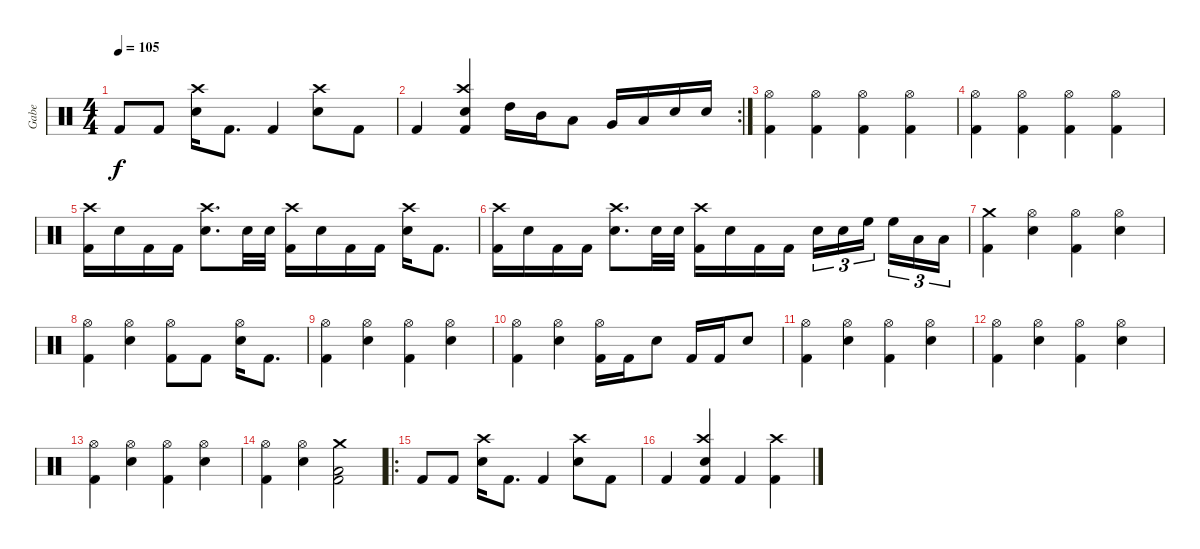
\track ("Gabe" "Gabe") {instrument percussion}
\staff {score}
\articulation defaults
\ts (4 4)
\tempo 105
\clef neutral
\ks c "Kick (hit) 2".8{dy f} "Kick (hit) 2".8
("Crash high (hit)" "Electric Snare (hit)").16 "Kick (hit) 2".8{d} "Kick (hit) 2".4 ("Crash high (hit)" "Electric Snare (hit)").8 "Kick (hit) 2".8 |
\rc 2 "Kick (hit) 2".4
("Crash high (hit)" "Electric Snare (hit)" "Kick (hit) 2").4 "High Tom (hit)".16 "Mid Tom (hit)".16 "Low Tom (hit)".8 "Very Low Tom (hit)".16 "Low Floor Tom (hit)".16 "Electric Snare (hit)".16 "Electric Snare (hit)".16 |
("Hi-Hat (open)" "Kick (hit) 2").4 ("Hi-Hat (open)" "Kick (hit) 2").4 ("Hi-Hat (open)" "Kick (hit) 2").4 ("Hi-Hat (open)" "Kick (hit) 2").4 |
("Hi-Hat (open)" "Kick (hit) 2").4 ("Hi-Hat (open)" "Kick (hit) 2").4 ("Hi-Hat (open)" "Kick (hit) 2").4 ("Hi-Hat (open)" "Kick (hit) 2").4 |
("Crash high (hit)" "Kick (hit) 2").16 "Electric Snare (hit)".16 "Kick (hit) 2".16 "Kick (hit) 2".16 ("Crash high (hit)" "Electric Snare (hit)").8{d} "Electric Snare (hit)".32 "Electric Snare (hit)".32 ("Crash high (hit)" "Kick (hit) 2").16 "Electric Snare (hit)".16 "Kick (hit) 2".16 "Kick (hit) 2".16 ("Crash high (hit)" "Electric Snare (hit)").16 "Kick (hit) 2".8{d} |
("Crash high (hit)" "Kick (hit) 2").16 "Electric Snare (hit)".16 "Kick (hit) 2".16 "Kick (hit) 2".16 ("Crash high (hit)" "Electric Snare (hit)").8{d} "Electric Snare (hit)".32 "Electric Snare (hit)".32 ("Crash high (hit)" "Kick (hit) 2").16 "Electric Snare (hit)".16 "Kick (hit) 2".16 "Kick (hit) 2".16 "Electric Snare (hit)".16{tu (3 2)} "Electric Snare (hit)".16{tu (3 2)} "High Floor Tom (hit)".16{tu (3 2) beam splitsecondary} "High Floor Tom (hit)".16{tu (3 2)} "Low Tom (hit)".16{tu (3 2)} "Low Tom (hit)".16{tu (3 2)} |
("Crash medium (hit)" "Kick (hit) 2").4 ("Hi-Hat (open)" "Electric Snare (hit)").4 ("Hi-Hat (open)" "Kick (hit) 2").4 ("Hi-Hat (open)" "Electric Snare (hit)").4 |
("Hi-Hat (open)" "Kick (hit) 2").4 ("Hi-Hat (open)" "Electric Snare (hit)").4 ("Hi-Hat (open)" "Kick (hit) 2").8 "Kick (hit) 2".8 ("Hi-Hat (open)" "Electric Snare (hit)").16 "Kick (hit) 2".8{d} |
("Hi-Hat (open)" "Kick (hit) 2").4 ("Hi-Hat (open)" "Electric Snare (hit)").4 ("Hi-Hat (open)" "Kick (hit) 2").4 ("Hi-Hat (open)" "Electric Snare (hit)").4 |
("Hi-Hat (open)" "Kick (hit) 2").4 ("Hi-Hat (open)" "Electric Snare (hit)").4 ("Hi-Hat (open)" "Kick (hit) 2").16 "Kick (hit) 2".16 "Electric Snare (hit)".8 "Kick (hit) 2".16 "Kick (hit) 2".16 "Electric Snare (hit)".8 |
("Hi-Hat (open)" "Kick (hit) 2").4 ("Hi-Hat (open)" "Electric Snare (hit)").4 ("Hi-Hat (open)" "Kick (hit) 2").4 ("Hi-Hat (open)" "Electric Snare (hit)").4 |
("Hi-Hat (open)" "Kick (hit) 2").4 ("Hi-Hat (open)" "Electric Snare (hit)").4 ("Hi-Hat (open)" "Kick (hit) 2").4 ("Hi-Hat (open)" "Electric Snare (hit)").4 |
("Hi-Hat (open)" "Kick (hit) 2").4 ("Hi-Hat (open)" "Electric Snare (hit)").4 ("Hi-Hat (open)" "Kick (hit) 2").4 ("Hi-Hat (open)" "Electric Snare (hit)").4 |
("Hi-Hat (open)" "Kick (hit) 2").4 ("Hi-Hat (open)" "Electric Snare (hit)").4 ("Crash medium (hit)" "Low Floor Tom (hit)" "Kick (hit) 2").2 |
\ro "Kick (hit) 2".8 "Kick (hit) 2".8
("Crash high (hit)" "Electric Snare (hit)").16 "Kick (hit) 2".8{d} "Kick (hit) 2".4 ("Crash high (hit)" "Electric Snare (hit)").8 "Kick (hit) 2".8 |
"Kick (hit) 2".4 ("Crash high (hit)" "Electric Snare (hit)" "Kick (hit) 2").4 "Kick (hit) 2".4 ("Crash high (hit)" "Kick (hit) 2").4
